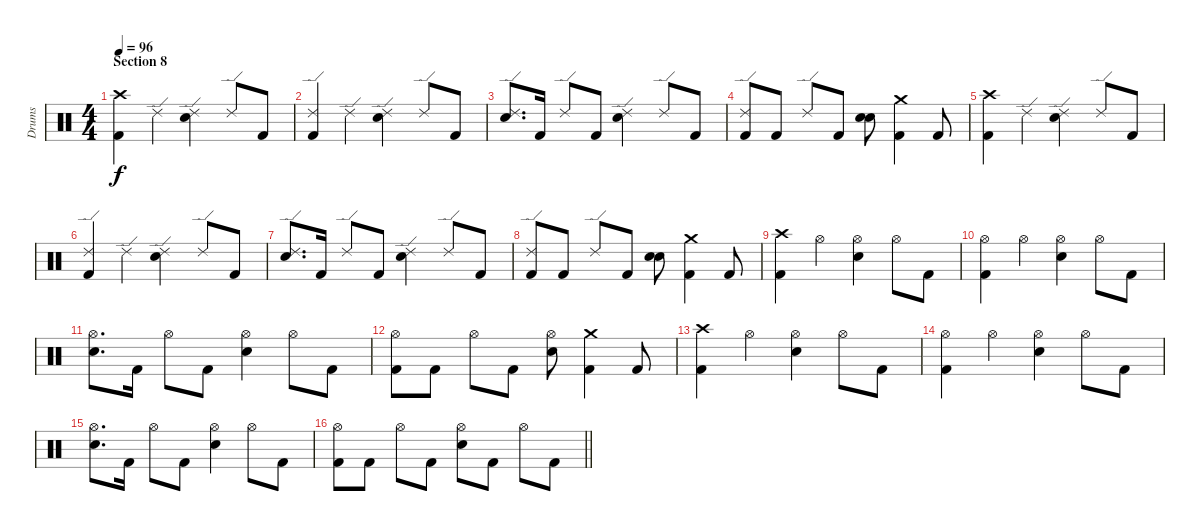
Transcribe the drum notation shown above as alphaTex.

\track ("Drums" "Drums") {instrument percussion}
\staff {score}
\articulation defaults
\ts (4 4)
\section ("" "Section 8")
\tempo 96
\clef neutral
\ks c
("Crash high (hit)" "Kick (hit) 2").4{dy f} "Ride (edge) 2".4 ("Ride (edge) 2" "Electric Snare (hit)").4 "Ride (edge) 2".8 "Kick (hit) 2".8 |
("Ride (edge) 2" "Kick (hit) 2").4 "Ride (edge) 2".4 ("Ride (edge) 2" "Electric Snare (hit)").4 "Ride (edge) 2".8 "Kick (hit) 2".8 |
("Ride (edge) 2" "Electric Snare (hit)").8{d} "Kick (hit) 2".16 "Ride (edge) 2".8 "Kick (hit) 2".8 ("Ride (edge) 2" "Electric Snare (hit)").4 "Ride (edge) 2".8 "Kick (hit) 2".8 |
("Ride (edge) 2" "Kick (hit) 2").8 "Kick (hit) 2".8 "Ride (edge) 2".8 "Kick (hit) 2".8 ("Electric Snare (hit)" "Electric Snare (hit)").8{bu 60} ("Crash medium (hit)" "Kick (hit) 2").4 "Kick (hit) 2".8 |
("Crash high (hit)" "Kick (hit) 2").4 "Ride (edge) 2".4 ("Ride (edge) 2" "Electric Snare (hit)").4 "Ride (edge) 2".8 "Kick (hit) 2".8 |
("Ride (edge) 2" "Kick (hit) 2").4 "Ride (edge) 2".4 ("Ride (edge) 2" "Electric Snare (hit)").4 "Ride (edge) 2".8 "Kick (hit) 2".8 |
("Ride (edge) 2" "Electric Snare (hit)").8{d} "Kick (hit) 2".16 "Ride (edge) 2".8 "Kick (hit) 2".8 ("Ride (edge) 2" "Electric Snare (hit)").4 "Ride (edge) 2".8 "Kick (hit) 2".8 |
("Ride (edge) 2" "Kick (hit) 2").8 "Kick (hit) 2".8 "Ride (edge) 2".8 "Kick (hit) 2".8 ("Electric Snare (hit)" "Electric Snare (hit)").8{bu 60} ("Crash medium (hit)" "Kick (hit) 2").4 "Kick (hit) 2".8 |
("Crash high (hit)" "Kick (hit) 2").4 "Hi-Hat (open)".4 ("Hi-Hat (open)" "Electric Snare (hit)").4 "Hi-Hat (open)".8 "Kick (hit) 2".8 |
("Hi-Hat (open)" "Kick (hit) 2").4 "Hi-Hat (open)".4 ("Hi-Hat (open)" "Electric Snare (hit)").4 "Hi-Hat (open)".8 "Kick (hit) 2".8 |
("Hi-Hat (open)" "Electric Snare (hit)").8{d} "Kick (hit) 2".16 "Hi-Hat (open)".8 "Kick (hit) 2".8 ("Hi-Hat (open)" "Electric Snare (hit)").4 "Hi-Hat (open)".8 "Kick (hit) 2".8 |
("Hi-Hat (open)" "Kick (hit) 2").8 "Kick (hit) 2".8 "Hi-Hat (open)".8 "Kick (hit) 2".8 ("Hi-Hat (open)" "Electric Snare (hit)").8 ("Crash medium (hit)" "Kick (hit) 2").4 "Kick (hit) 2".8 |
("Crash high (hit)" "Kick (hit) 2").4 "Hi-Hat (open)".4 ("Hi-Hat (open)" "Electric Snare (hit)").4 "Hi-Hat (open)".8 "Kick (hit) 2".8 |
("Hi-Hat (open)" "Kick (hit) 2").4 "Hi-Hat (open)".4 ("Hi-Hat (open)" "Electric Snare (hit)").4 "Hi-Hat (open)".8 "Kick (hit) 2".8 |
("Hi-Hat (open)" "Electric Snare (hit)").8{d} "Kick (hit) 2".16 "Hi-Hat (open)".8 "Kick (hit) 2".8 ("Hi-Hat (open)" "Electric Snare (hit)").4 "Hi-Hat (open)".8 "Kick (hit) 2".8 |
\barLineRight lightlight
("Hi-Hat (open)" "Kick (hit) 2").8 "Kick (hit) 2".8 "Hi-Hat (open)".8 "Kick (hit) 2".8 ("Hi-Hat (open)" "Electric Snare (hit)").8 "Kick (hit) 2".8 "Hi-Hat (open)".8 "Kick (hit) 2".8
